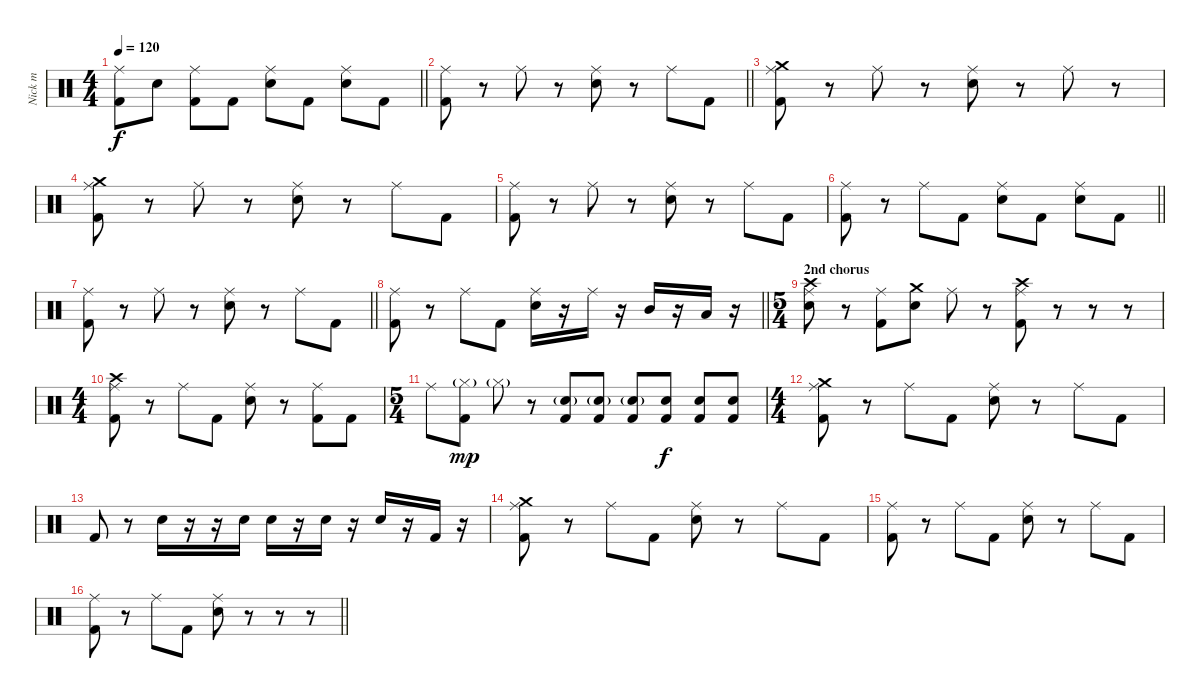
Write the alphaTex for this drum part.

\track ("Nick m" "Nick m") {instrument percussion}
\staff {score}
\articulation defaults
\ts (4 4)
\tempo 120
\clef neutral
\barLineRight lightlight
\ks c
("Ride (middle)" "Kick (hit) 2").8{dy f} "Snare (hit) 2".8 ("Ride (middle)" "Kick (hit) 2").8 "Kick (hit) 2".8 ("Ride (middle)" "Snare (hit) 2").8 "Kick (hit) 2".8 ("Ride (middle)" "Snare (hit) 2").8 "Kick (hit) 2".8 |
\barLineRight lightlight
("Ride (middle)" "Kick (hit) 2").8 r.8 "Ride (middle)".8 r.8 ("Ride (middle)" "Snare (hit) 2").8 r.8 "Ride (middle)".8 "Kick (hit) 2".8 |
("Crash medium (hit)" "Ride (middle)" "Kick (hit) 2").8 r.8 "Ride (middle)".8 r.8 ("Ride (middle)" "Snare (hit) 2").8 r.8 "Ride (middle)".8 r.8 |
("Crash medium (hit)" "Ride (middle)" "Kick (hit) 2").8 r.8 "Ride (middle)".8 r.8 ("Ride (middle)" "Snare (hit) 2").8 r.8 "Ride (middle)".8 "Kick (hit) 2".8 |
("Ride (middle)" "Kick (hit) 2").8 r.8 "Ride (middle)".8 r.8 ("Ride (middle)" "Snare (hit) 2").8 r.8 "Ride (middle)".8 "Kick (hit) 2".8 |
\barLineRight lightlight
("Ride (middle)" "Kick (hit) 2").8 r.8 "Ride (middle)".8 "Kick (hit) 2".8 ("Ride (middle)" "Snare (hit) 2").8 "Kick (hit) 2".8 ("Ride (middle)" "Snare (hit) 2").8 "Kick (hit) 2".8 |
\barLineRight lightlight
("Ride (middle)" "Kick (hit) 2").8 r.8 "Ride (middle)".8 r.8 ("Ride (middle)" "Snare (hit) 2").8 r.8 "Ride (middle)".8 "Kick (hit) 2".8 |
\barLineRight lightlight
("Ride (middle)" "Kick (hit) 2").8 r.8 "Ride (middle)".8 "Kick (hit) 2".8 ("Ride (middle)" "Snare (hit) 2").16 r.16 "Ride (middle)".16 r.16 "Mid Tom (hit)".16 r.16 "Low Tom (hit)".16 r.16 |
\ts (5 4)
\section ("" "2nd chorus")
("Ride (middle)" "Crash high (hit)" "Snare (hit) 2").8 r.8 ("Ride (middle)" "Kick (hit) 2").8 ("Crash medium (hit)" "Snare (hit) 2").8 "Ride (middle)".8 r.8 ("Ride (middle)" "Crash high (hit)" "Kick (hit) 2").8 r.8 r.8 r.8 |
\ts (4 4)
("Ride (middle)" "Crash high (hit)" "Kick (hit) 2").8 r.8 "Ride (middle)".8 "Kick (hit) 2".8 ("Ride (middle)" "Snare (hit) 2").8 r.8 ("Ride (middle)" "Kick (hit) 2").8 "Kick (hit) 2".8 |
\ts (5 4)
"Ride (middle)".8 ("Hi-Hat (closed)"{g} "Kick (hit) 2").8{dy mp} "Hi-Hat (closed)"{g}.8 r.8 ("Snare (hit) 2"{g} "Kick (hit) 2").8 ("Snare (hit) 2"{g} "Kick (hit) 2").8 ("Snare (hit) 2"{g} "Kick (hit) 2").8 ("Snare (hit) 2" "Kick (hit) 2").8{dy f} ("Snare (hit) 2" "Kick (hit) 2").8 ("Snare (hit) 2" "Kick (hit) 2").8 |
\ts (4 4)
("Ride (middle)" "Crash medium (hit)" "Kick (hit) 2").8 r.8 "Ride (middle)".8 "Kick (hit) 2".8 ("Ride (middle)" "Snare (hit) 2").8 r.8 "Ride (middle)".8 "Kick (hit) 2".8 |
"Kick (hit) 2".8 r.8 "Snare (hit) 2".16 r.16 r.16 "Snare (hit) 2".16 "Snare (hit) 2".16 r.16 "Snare (hit) 2".16 r.16 "Snare (hit) 2".16 r.16 "Kick (hit) 2".16 r.16 |
("Crash medium (hit)" "Ride (middle)" "Kick (hit) 2").8 r.8 "Ride (middle)".8 "Kick (hit) 2".8 ("Ride (middle)" "Snare (hit) 2").8 r.8 "Ride (middle)".8 "Kick (hit) 2".8 |
("Ride (middle)" "Kick (hit) 2").8 r.8 "Ride (middle)".8 "Kick (hit) 2".8 ("Ride (middle)" "Snare (hit) 2").8 r.8 "Ride (middle)".8 "Kick (hit) 2".8 |
\barLineRight lightlight
("Ride (middle)" "Kick (hit) 2").8 r.8 "Ride (middle)".8 "Kick (hit) 2".8 ("Ride (middle)" "Snare (hit) 2").8 r.8 r.8 r.8
